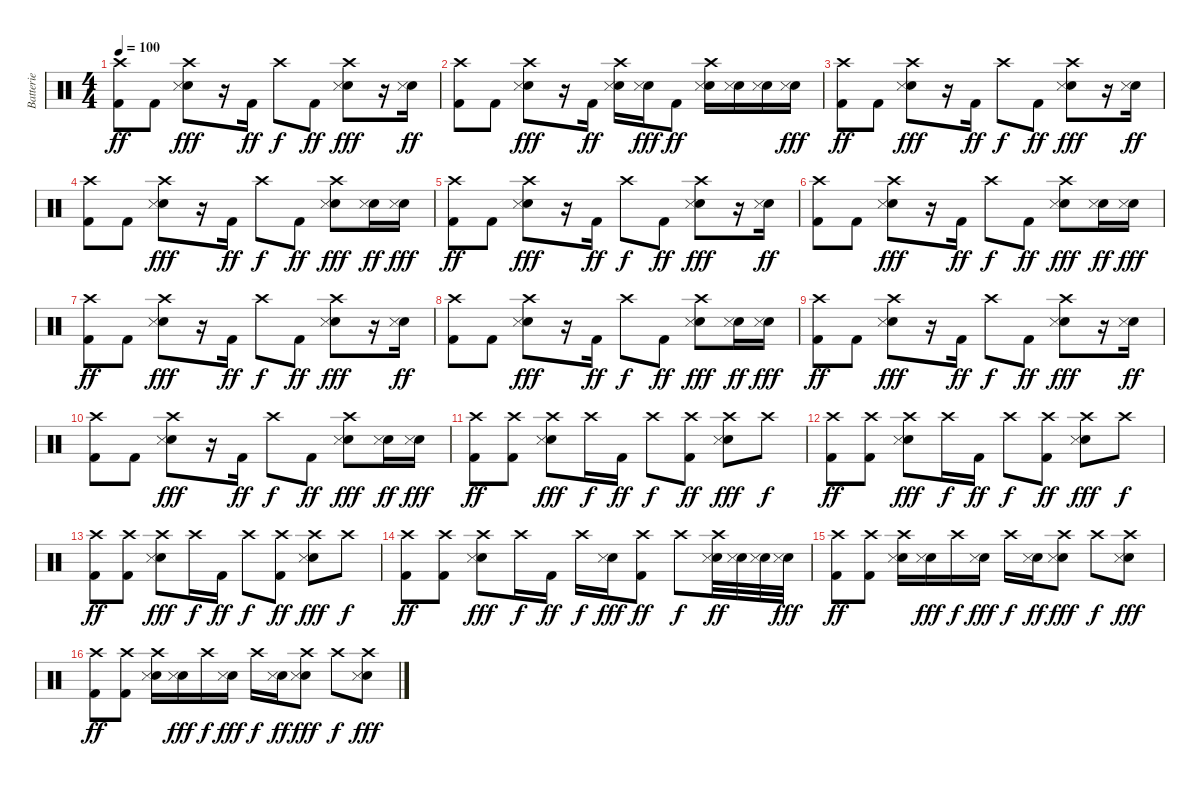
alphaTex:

\track ("Batterie" "Batterie") {instrument percussion}
\staff {score}
\articulation defaults
\ts (4 4)
\tempo 100
\clef neutral
\ks c
("Crash high (hit)" "Kick (hit) 2").8{dy ff} "Kick (hit) 2".8 ("Crash high (hit)" "Snare (hit) 2" "Snare (side stick) 3").8{dy fff} r.16 "Kick (hit) 2".16{dy ff} "Crash high (hit)".8{dy f} "Kick (hit) 2".8{dy ff} ("Crash high (hit)" "Snare (hit) 2" "Snare (side stick) 3").8{dy fff} r.16 ("Snare (hit) 2" "Snare (side stick) 3").16{dy ff} |
("Crash high (hit)" "Kick (hit) 2").8 "Kick (hit) 2".8 ("Crash high (hit)" "Snare (hit) 2" "Snare (side stick) 3").8{dy fff} r.16 "Kick (hit) 2".16{dy ff} ("Crash high (hit)" "Snare (hit) 2" "Snare (side stick) 3").16 ("Snare (hit) 2" "Snare (side stick) 3").16{dy fff} "Kick (hit) 2".8{dy ff} ("Crash high (hit)" "Snare (hit) 2" "Snare (side stick) 3").16 ("Snare (hit) 2" "Snare (side stick) 3").16 ("Snare (hit) 2" "Snare (side stick) 3").16 ("Snare (hit) 2" "Snare (side stick) 3").16{dy fff} |
("Crash high (hit)" "Kick (hit) 2").8{dy ff} "Kick (hit) 2".8 ("Crash high (hit)" "Snare (hit) 2" "Snare (side stick) 3").8{dy fff} r.16 "Kick (hit) 2".16{dy ff} "Crash high (hit)".8{dy f} "Kick (hit) 2".8{dy ff} ("Crash high (hit)" "Snare (hit) 2" "Snare (side stick) 3").8{dy fff} r.16 ("Snare (hit) 2" "Snare (side stick) 3").16{dy ff} |
("Crash high (hit)" "Kick (hit) 2").8 "Kick (hit) 2".8 ("Crash high (hit)" "Snare (hit) 2" "Snare (side stick) 3").8{dy fff} r.16 "Kick (hit) 2".16{dy ff} "Crash high (hit)".8{dy f} "Kick (hit) 2".8{dy ff} ("Crash high (hit)" "Snare (hit) 2" "Snare (side stick) 3").8{dy fff} ("Snare (hit) 2" "Snare (side stick) 3").16{dy ff} ("Snare (hit) 2" "Snare (side stick) 3").16{dy fff} |
("Crash high (hit)" "Kick (hit) 2").8{dy ff} "Kick (hit) 2".8 ("Crash high (hit)" "Snare (hit) 2" "Snare (side stick) 3").8{dy fff} r.16 "Kick (hit) 2".16{dy ff} "Crash high (hit)".8{dy f} "Kick (hit) 2".8{dy ff} ("Crash high (hit)" "Snare (hit) 2" "Snare (side stick) 3").8{dy fff} r.16 ("Snare (hit) 2" "Snare (side stick) 3").16{dy ff} |
("Crash high (hit)" "Kick (hit) 2").8 "Kick (hit) 2".8 ("Crash high (hit)" "Snare (hit) 2" "Snare (side stick) 3").8{dy fff} r.16 "Kick (hit) 2".16{dy ff} "Crash high (hit)".8{dy f} "Kick (hit) 2".8{dy ff} ("Crash high (hit)" "Snare (hit) 2" "Snare (side stick) 3").8{dy fff} ("Snare (hit) 2" "Snare (side stick) 3").16{dy ff} ("Snare (hit) 2" "Snare (side stick) 3").16{dy fff} |
("Crash high (hit)" "Kick (hit) 2").8{dy ff} "Kick (hit) 2".8 ("Crash high (hit)" "Snare (hit) 2" "Snare (side stick) 3").8{dy fff} r.16 "Kick (hit) 2".16{dy ff} "Crash high (hit)".8{dy f} "Kick (hit) 2".8{dy ff} ("Crash high (hit)" "Snare (hit) 2" "Snare (side stick) 3").8{dy fff} r.16 ("Snare (hit) 2" "Snare (side stick) 3").16{dy ff} |
("Crash high (hit)" "Kick (hit) 2").8 "Kick (hit) 2".8 ("Crash high (hit)" "Snare (hit) 2" "Snare (side stick) 3").8{dy fff} r.16 "Kick (hit) 2".16{dy ff} "Crash high (hit)".8{dy f} "Kick (hit) 2".8{dy ff} ("Crash high (hit)" "Snare (hit) 2" "Snare (side stick) 3").8{dy fff} ("Snare (hit) 2" "Snare (side stick) 3").16{dy ff} ("Snare (hit) 2" "Snare (side stick) 3").16{dy fff} |
("Crash high (hit)" "Kick (hit) 2").8{dy ff} "Kick (hit) 2".8 ("Crash high (hit)" "Snare (hit) 2" "Snare (side stick) 3").8{dy fff} r.16 "Kick (hit) 2".16{dy ff} "Crash high (hit)".8{dy f} "Kick (hit) 2".8{dy ff} ("Crash high (hit)" "Snare (hit) 2" "Snare (side stick) 3").8{dy fff} r.16 ("Snare (hit) 2" "Snare (side stick) 3").16{dy ff} |
("Crash high (hit)" "Kick (hit) 2").8 "Kick (hit) 2".8 ("Crash high (hit)" "Snare (hit) 2" "Snare (side stick) 3").8{dy fff} r.16 "Kick (hit) 2".16{dy ff} "Crash high (hit)".8{dy f} "Kick (hit) 2".8{dy ff} ("Crash high (hit)" "Snare (hit) 2" "Snare (side stick) 3").8{dy fff} ("Snare (hit) 2" "Snare (side stick) 3").16{dy ff} ("Snare (hit) 2" "Snare (side stick) 3").16{dy fff} |
("Crash high (hit)" "Kick (hit) 2").8{dy ff} ("Crash high (hit)" "Kick (hit) 2").8 ("Crash high (hit)" "Snare (hit) 2" "Snare (side stick) 3").8{dy fff} "Crash high (hit)".16{dy f} "Kick (hit) 2".16{dy ff} "Crash high (hit)".8{dy f} ("Crash high (hit)" "Kick (hit) 2").8{dy ff} ("Crash high (hit)" "Snare (hit) 2" "Snare (side stick) 3").8{dy fff} "Crash high (hit)".8{dy f} |
("Crash high (hit)" "Kick (hit) 2").8{dy ff} ("Crash high (hit)" "Kick (hit) 2").8 ("Crash high (hit)" "Snare (hit) 2" "Snare (side stick) 3").8{dy fff} "Crash high (hit)".16{dy f} "Kick (hit) 2".16{dy ff} "Crash high (hit)".8{dy f} ("Crash high (hit)" "Kick (hit) 2").8{dy ff} ("Crash high (hit)" "Snare (hit) 2" "Snare (side stick) 3").8{dy fff} "Crash high (hit)".8{dy f} |
("Crash high (hit)" "Kick (hit) 2").8{dy ff} ("Crash high (hit)" "Kick (hit) 2").8 ("Crash high (hit)" "Snare (hit) 2" "Snare (side stick) 3").8{dy fff} "Crash high (hit)".16{dy f} "Kick (hit) 2".16{dy ff} "Crash high (hit)".8{dy f} ("Crash high (hit)" "Kick (hit) 2").8{dy ff} ("Crash high (hit)" "Snare (hit) 2" "Snare (side stick) 3").8{dy fff} "Crash high (hit)".8{dy f} |
("Crash high (hit)" "Kick (hit) 2").8{dy ff} ("Crash high (hit)" "Kick (hit) 2").8 ("Crash high (hit)" "Snare (hit) 2" "Snare (side stick) 3").8{dy fff} "Crash high (hit)".16{dy f} "Kick (hit) 2".16{dy ff} "Crash high (hit)".16{dy f} ("Snare (hit) 2" "Snare (side stick) 3").16{dy fff} ("Crash high (hit)" "Kick (hit) 2").8{dy ff} "Crash high (hit)".8{dy f} ("Crash high (hit)" "Snare (hit) 2" "Snare (side stick) 3").32{dy ff} ("Snare (hit) 2" "Snare (side stick) 3").32 ("Snare (hit) 2" "Snare (side stick) 3").32 ("Snare (hit) 2" "Snare (side stick) 3").32{dy fff} |
("Crash high (hit)" "Kick (hit) 2").8{dy ff} ("Crash high (hit)" "Kick (hit) 2").8 ("Crash high (hit)" "Snare (hit) 2" "Snare (side stick) 3").16 ("Snare (hit) 2" "Snare (side stick) 3").16{dy fff} "Crash high (hit)".16{dy f} ("Snare (hit) 2" "Snare (side stick) 3").16{dy fff} "Crash high (hit)".16{dy f} ("Snare (hit) 2" "Snare (side stick) 3").16{dy ff} ("Crash high (hit)" "Snare (hit) 2" "Snare (side stick) 3").8{dy fff} "Crash high (hit)".8{dy f} ("Crash high (hit)" "Snare (hit) 2" "Snare (side stick) 3").8{dy fff} |
("Crash high (hit)" "Kick (hit) 2").8{dy ff} ("Crash high (hit)" "Kick (hit) 2").8 ("Crash high (hit)" "Snare (hit) 2" "Snare (side stick) 3").16 ("Snare (hit) 2" "Snare (side stick) 3").16{dy fff} "Crash high (hit)".16{dy f} ("Snare (hit) 2" "Snare (side stick) 3").16{dy fff} "Crash high (hit)".16{dy f} ("Snare (hit) 2" "Snare (side stick) 3").16{dy ff} ("Crash high (hit)" "Snare (hit) 2" "Snare (side stick) 3").8{dy fff} "Crash high (hit)".8{dy f} ("Crash high (hit)" "Snare (hit) 2" "Snare (side stick) 3").8{dy fff}
